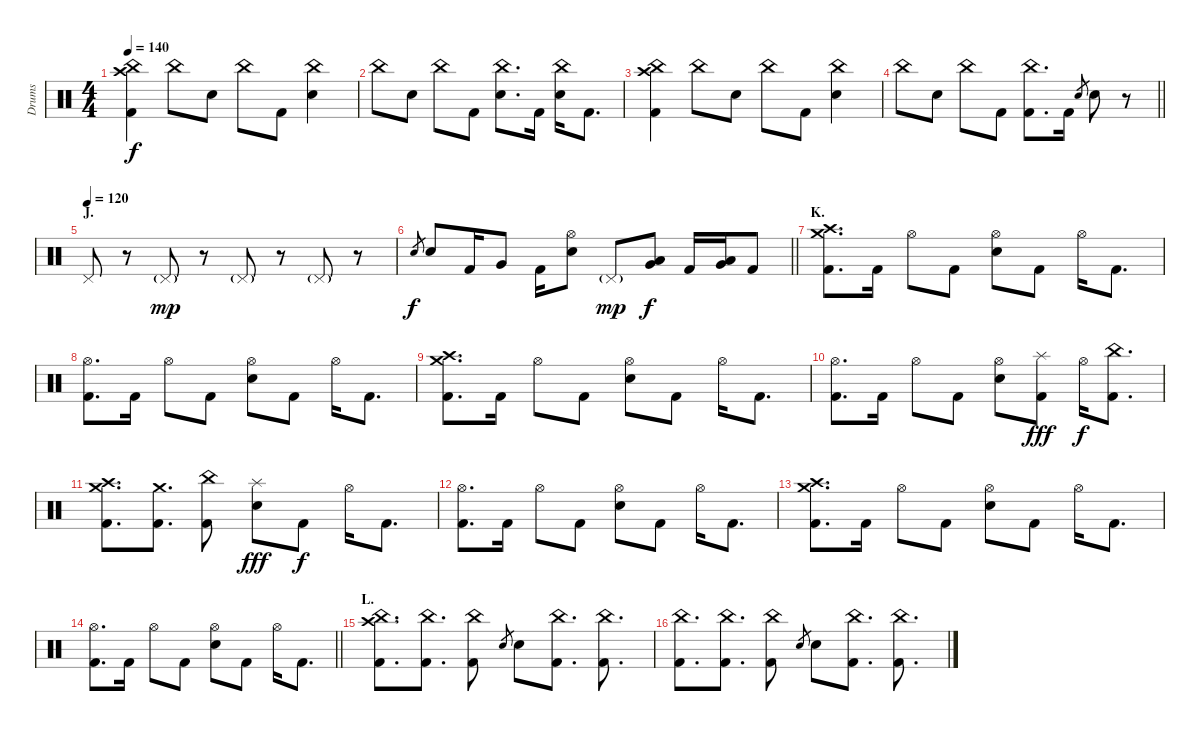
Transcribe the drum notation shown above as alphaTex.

\track ("Drums" "Drums") {instrument percussion}
\staff {score}
\articulation defaults
\ts (4 4)
\tempo 140
\clef neutral
\ks c
("China (hit)" "Crash high (hit)" "Kick (hit) 2").4{dy f} "China (hit)".8 "Electric Snare (hit)".8 "China (hit)".8 "Kick (hit) 2".8 ("China (hit)" "Electric Snare (hit)").4 |
"China (hit)".8 "Electric Snare (hit)".8 "China (hit)".8 "Kick (hit) 2".8 ("China (hit)" "Electric Snare (hit)").8{d} "Kick (hit) 2".16 ("China (hit)" "Electric Snare (hit)").16 "Kick (hit) 2".8{d} |
("China (hit)" "Crash high (hit)" "Kick (hit) 2").4 "China (hit)".8 "Electric Snare (hit)".8 "China (hit)".8 "Kick (hit) 2".8 ("China (hit)" "Electric Snare (hit)").4 |
\barLineRight lightlight "China (hit)".8 "Electric Snare (hit)".8 "China (hit)".8 "Kick (hit) 2".8
("China (hit)" "Kick (hit) 2").8{d} "Kick (hit) 2".16 "Electric Snare (hit)".8{gr} "Electric Snare (hit)".8 r.8 |
\section ("" "J.")
\tempo (120)
"Pedal Hi-Hat (hit)".8 r.8 "Pedal Hi-Hat (hit)"{g}.8{dy mp} r.8 "Pedal Hi-Hat (hit)"{g}.8 r.8 "Pedal Hi-Hat (hit)"{g}.8 r.8 |
\barLineRight lightlight "Electric Snare (hit)".8{gr dy f} "Electric Snare (hit)".8 "Kick (hit) 2".16 "Very Low Tom (hit)".8 "Kick (hit) 2".16
("Hi-Hat (open)" "Electric Snare (hit)").8 "Pedal Hi-Hat (hit)"{g}.8{dy mp} ("Low Tom (hit)" "Very Low Tom (hit)").8{dy f} "Kick (hit) 2".16 ("Very Low Tom (hit)" "Low Floor Tom (hit)").16 "Kick (hit) 2".8 |
\section ("" "K.")
("Crash medium (hit)" "Crash high (hit)" "Kick (hit) 2").8{d} "Kick (hit) 2".16 "Hi-Hat (open)".8 "Kick (hit) 2".8 ("Hi-Hat (open)" "Electric Snare (hit)").8 "Kick (hit) 2".8 "Hi-Hat (open)".16 "Kick (hit) 2".8{d} |
("Hi-Hat (open)" "Kick (hit) 2").8{d} "Kick (hit) 2".16 "Hi-Hat (open)".8 "Kick (hit) 2".8 ("Hi-Hat (open)" "Electric Snare (hit)").8 "Kick (hit) 2".8 "Hi-Hat (open)".16 "Kick (hit) 2".8{d} |
("Crash medium (hit)" "Crash high (hit)" "Kick (hit) 2").8{d} "Kick (hit) 2".16 "Hi-Hat (open)".8 "Kick (hit) 2".8 ("Hi-Hat (open)" "Electric Snare (hit)").8 "Kick (hit) 2".8 "Hi-Hat (open)".16 "Kick (hit) 2".8{d} |
("Hi-Hat (open)" "Kick (hit) 2").8{d} "Kick (hit) 2".16 "Hi-Hat (open)".8 "Kick (hit) 2".8 ("Hi-Hat (open)" "Electric Snare (hit)").8 ("Splash (hit)" "Kick (hit) 2").8{dy fff} "Hi-Hat (open)".16{dy f} ("China (hit)" "Kick (hit) 2").8{d} |
("Crash medium (hit)" "Crash high (hit)" "Kick (hit) 2").8{d} ("Crash medium (hit)" "Kick (hit) 2").8{d} ("China (hit)" "Kick (hit) 2").8 ("Splash (hit)" "Electric Snare (hit)").8{dy fff} "Kick (hit) 2".8{dy f} "Hi-Hat (open)".16 "Kick (hit) 2".8{d} |
("Hi-Hat (open)" "Kick (hit) 2").8{d} "Kick (hit) 2".16 "Hi-Hat (open)".8 "Kick (hit) 2".8 ("Hi-Hat (open)" "Electric Snare (hit)").8 "Kick (hit) 2".8 "Hi-Hat (open)".16 "Kick (hit) 2".8{d} |
("Crash medium (hit)" "Crash high (hit)" "Kick (hit) 2").8{d} "Kick (hit) 2".16 "Hi-Hat (open)".8 "Kick (hit) 2".8 ("Hi-Hat (open)" "Electric Snare (hit)").8 "Kick (hit) 2".8 "Hi-Hat (open)".16 "Kick (hit) 2".8{d} |
\barLineRight lightlight
("Hi-Hat (open)" "Kick (hit) 2").8{d} "Kick (hit) 2".16 "Hi-Hat (open)".8 "Kick (hit) 2".8 ("Hi-Hat (open)" "Electric Snare (hit)").8 "Kick (hit) 2".8 "Hi-Hat (open)".16 "Kick (hit) 2".8{d} |
\section ("" "L.")
("China (hit)" "Crash high (hit)" "Kick (hit) 2").8{d} ("China (hit)" "Kick (hit) 2").8{d} ("China (hit)" "Kick (hit) 2").8 "Electric Snare (hit)".8{gr} "Electric Snare (hit)".8 ("China (hit)" "Kick (hit) 2").8{d} ("China (hit)" "Kick (hit) 2").8{d} |
("China (hit)" "Kick (hit) 2").8{d} ("China (hit)" "Kick (hit) 2").8{d} ("China (hit)" "Kick (hit) 2").8 "Electric Snare (hit)".8{gr} "Electric Snare (hit)".8 ("China (hit)" "Kick (hit) 2").8{d} ("China (hit)" "Kick (hit) 2").8{d}
